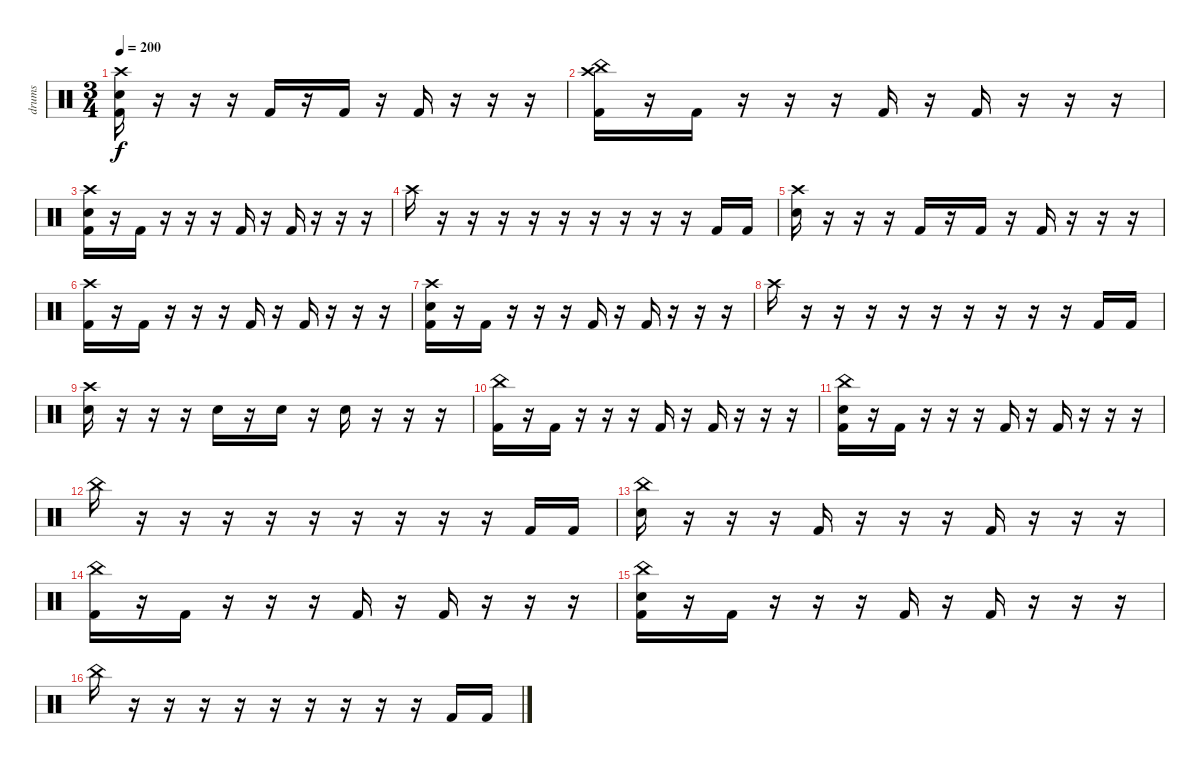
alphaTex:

\track ("drums" "drums") {instrument percussion}
\staff {score}
\articulation defaults
\ts (3 4)
\tempo 200
\clef neutral
\ks c
("Crash high (hit)" "Electric Snare (hit)" "Kick (hit) 2").16{dy f} r.16 r.16 r.16 "Kick (hit) 2".16 r.16 "Kick (hit) 2".16 r.16 "Kick (hit) 2".16 r.16 r.16 r.16 |
("Kick (hit) 2" "China (hit)" "Crash high (hit)").16 r.16 "Kick (hit) 2".16 r.16 r.16 r.16 "Kick (hit) 2".16 r.16 "Kick (hit) 2".16 r.16 r.16 r.16 |
("Crash high (hit)" "Electric Snare (hit)" "Kick (hit) 2").16 r.16 "Kick (hit) 2".16 r.16 r.16 r.16 "Kick (hit) 2".16 r.16 "Kick (hit) 2".16 r.16 r.16 r.16 |
"Crash high (hit)".16 r.16 r.16 r.16 r.16 r.16 r.16 r.16 r.16 r.16 "Kick (hit) 2".16 "Kick (hit) 2".16 |
("Electric Snare (hit)" "Crash high (hit)").16 r.16 r.16 r.16 "Kick (hit) 2".16 r.16 "Kick (hit) 2".16 r.16 "Kick (hit) 2".16 r.16 r.16 r.16 |
("Kick (hit) 2" "Crash high (hit)").16 r.16 "Kick (hit) 2".16 r.16 r.16 r.16 "Kick (hit) 2".16 r.16 "Kick (hit) 2".16 r.16 r.16 r.16 |
("Crash high (hit)" "Electric Snare (hit)" "Kick (hit) 2").16 r.16 "Kick (hit) 2".16 r.16 r.16 r.16 "Kick (hit) 2".16 r.16 "Kick (hit) 2".16 r.16 r.16 r.16 |
"Crash high (hit)".16 r.16 r.16 r.16 r.16 r.16 r.16 r.16 r.16 r.16 "Kick (hit) 2".16 "Kick (hit) 2".16 |
("Electric Snare (hit)" "Crash high (hit)").16 r.16 r.16 r.16 "Electric Snare (hit)".16 r.16 "Electric Snare (hit)".16 r.16 "Electric Snare (hit)".16 r.16 r.16 r.16 |
("Kick (hit) 2" "China (hit)").16 r.16 "Kick (hit) 2".16 r.16 r.16 r.16 "Kick (hit) 2".16 r.16 "Kick (hit) 2".16 r.16 r.16 r.16 |
("China (hit)" "Electric Snare (hit)" "Kick (hit) 2").16 r.16 "Kick (hit) 2".16 r.16 r.16 r.16 "Kick (hit) 2".16 r.16 "Kick (hit) 2".16 r.16 r.16 r.16 |
"China (hit)".16 r.16 r.16 r.16 r.16 r.16 r.16 r.16 r.16 r.16 "Kick (hit) 2".16 "Kick (hit) 2".16 |
("Electric Snare (hit)" "China (hit)").16 r.16 r.16 r.16 "Kick (hit) 2".16 r.16 r.16 r.16 "Kick (hit) 2".16 r.16 r.16 r.16 |
("Kick (hit) 2" "China (hit)").16 r.16 "Kick (hit) 2".16 r.16 r.16 r.16 "Kick (hit) 2".16 r.16 "Kick (hit) 2".16 r.16 r.16 r.16 |
("China (hit)" "Electric Snare (hit)" "Kick (hit) 2").16 r.16 "Kick (hit) 2".16 r.16 r.16 r.16 "Kick (hit) 2".16 r.16 "Kick (hit) 2".16 r.16 r.16 r.16 |
"China (hit)".16 r.16 r.16 r.16 r.16 r.16 r.16 r.16 r.16 r.16 "Kick (hit) 2".16 "Kick (hit) 2".16
